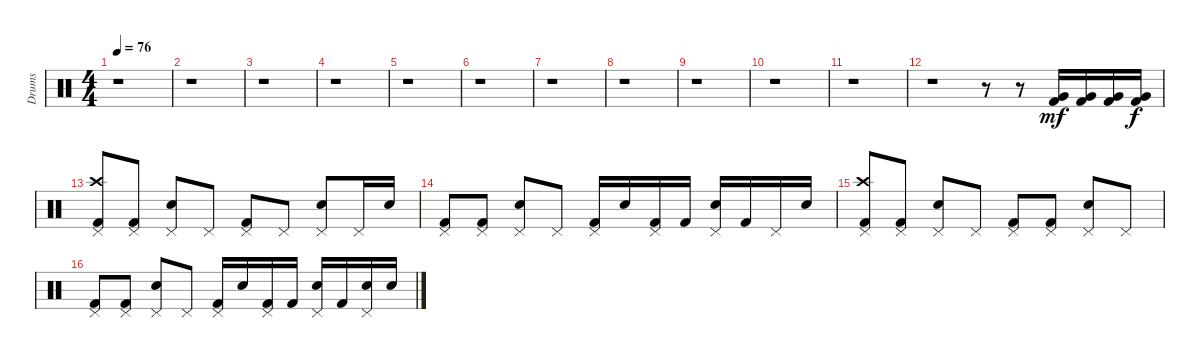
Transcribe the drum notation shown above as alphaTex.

\track ("Drums" "Drums") {instrument percussion}
\staff {score}
\articulation defaults
\ts (4 4)
\tempo 76
\clef neutral
\ks c
r.1{dy mf} |
r.1 |
r.1 |
r.1 |
r.1 |
r.1 |
r.1 |
r.1 |
r.1 |
r.1 |
r.1 |
r.1 r.8 r.8 ("Very Low Tom (hit)" "Kick (hit) 2").16 ("Very Low Tom (hit)" "Kick (hit) 2").16 ("Very Low Tom (hit)" "Kick (hit) 2").16 ("Very Low Tom (hit)" "Kick (hit) 2").16{dy f} |
("Crash high (hit)" "Pedal Hi-Hat (hit)" "Kick (hit) 2").8 ("Pedal Hi-Hat (hit)" "Kick (hit) 2").8 ("Pedal Hi-Hat (hit)" "Snare (hit) 2").8 "Pedal Hi-Hat (hit)".8 ("Pedal Hi-Hat (hit)" "Kick (hit) 2").8 "Pedal Hi-Hat (hit)".8 ("Pedal Hi-Hat (hit)" "Snare (hit) 2").8 "Pedal Hi-Hat (hit)".16 "Snare (hit) 2".16 |
("Pedal Hi-Hat (hit)" "Kick (hit) 2").8 ("Pedal Hi-Hat (hit)" "Kick (hit) 2").8 ("Pedal Hi-Hat (hit)" "Snare (hit) 2").8 "Pedal Hi-Hat (hit)".8 ("Pedal Hi-Hat (hit)" "Kick (hit) 2").16 "Snare (hit) 2".16 ("Pedal Hi-Hat (hit)" "Kick (hit) 2").16 "Kick (hit) 2".16 ("Pedal Hi-Hat (hit)" "Snare (hit) 2").16 "Kick (hit) 2".16 "Pedal Hi-Hat (hit)".16 "Snare (hit) 2".16 |
("Crash high (hit)" "Pedal Hi-Hat (hit)" "Kick (hit) 2").8 ("Pedal Hi-Hat (hit)" "Kick (hit) 2").8 ("Pedal Hi-Hat (hit)" "Snare (hit) 2").8 "Pedal Hi-Hat (hit)".8 ("Pedal Hi-Hat (hit)" "Kick (hit) 2").8 ("Pedal Hi-Hat (hit)" "Kick (hit) 2").8 ("Pedal Hi-Hat (hit)" "Snare (hit) 2").8 "Pedal Hi-Hat (hit)".8 |
("Pedal Hi-Hat (hit)" "Kick (hit) 2").8 ("Pedal Hi-Hat (hit)" "Kick (hit) 2").8 ("Pedal Hi-Hat (hit)" "Snare (hit) 2").8 "Pedal Hi-Hat (hit)".8 ("Pedal Hi-Hat (hit)" "Kick (hit) 2").16 "Snare (hit) 2".16 ("Pedal Hi-Hat (hit)" "Kick (hit) 2").16 "Kick (hit) 2".16 ("Pedal Hi-Hat (hit)" "Snare (hit) 2").16 "Kick (hit) 2".16 ("Pedal Hi-Hat (hit)" "Snare (hit) 2").16 "Snare (hit) 2".16
